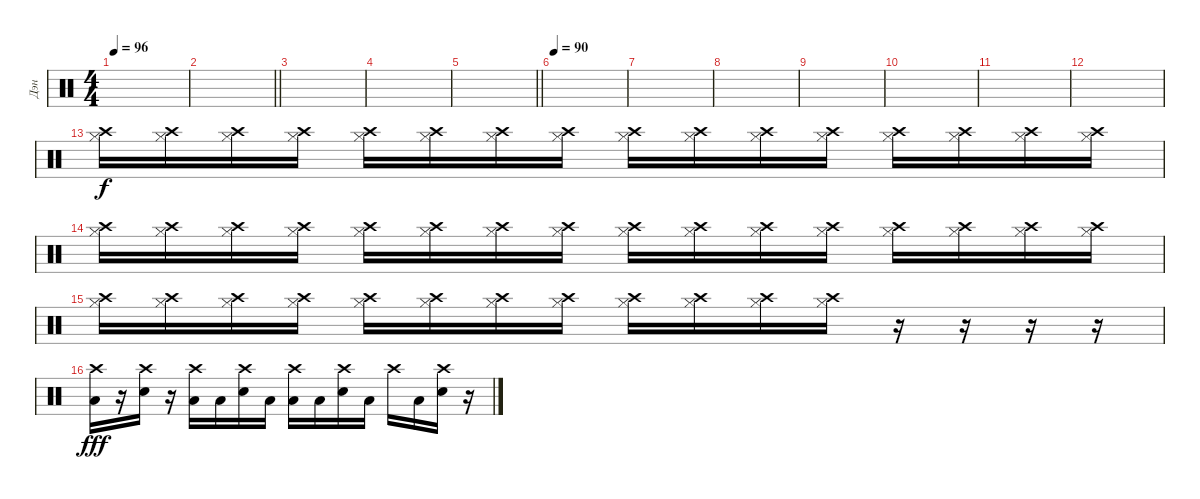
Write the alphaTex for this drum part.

\track ("Дэн" "Дэн") {instrument percussion}
\staff {score}
\articulation defaults
\ts (4 4)
\tempo 96
\clef neutral
\ks c
|
\barLineRight lightlight
|
|
|
\barLineRight lightlight
|
\tempo 90
|
|
|
|
|
|
|
("Crash high (hit)" "Hi-Hat (closed)").16{volume 16} ("Crash high (hit)" "Hi-Hat (closed)").16 ("Crash high (hit)" "Hi-Hat (closed)").16 ("Crash high (hit)" "Hi-Hat (closed)").16 ("Crash high (hit)" "Hi-Hat (closed)").16 ("Crash high (hit)" "Hi-Hat (closed)").16 ("Crash high (hit)" "Hi-Hat (closed)").16 ("Crash high (hit)" "Hi-Hat (closed)").16 ("Crash high (hit)" "Hi-Hat (closed)").16 ("Crash high (hit)" "Hi-Hat (closed)").16 ("Crash high (hit)" "Hi-Hat (closed)").16 ("Crash high (hit)" "Hi-Hat (closed)").16 ("Crash high (hit)" "Hi-Hat (closed)").16 ("Crash high (hit)" "Hi-Hat (closed)").16 ("Crash high (hit)" "Hi-Hat (closed)").16 ("Crash high (hit)" "Hi-Hat (closed)").16 |
("Crash high (hit)" "Hi-Hat (closed)").16 ("Crash high (hit)" "Hi-Hat (closed)").16 ("Crash high (hit)" "Hi-Hat (closed)").16 ("Crash high (hit)" "Hi-Hat (closed)").16 ("Crash high (hit)" "Hi-Hat (closed)").16 ("Crash high (hit)" "Hi-Hat (closed)").16 ("Crash high (hit)" "Hi-Hat (closed)").16 ("Crash high (hit)" "Hi-Hat (closed)").16 ("Crash high (hit)" "Hi-Hat (closed)").16 ("Crash high (hit)" "Hi-Hat (closed)").16 ("Crash high (hit)" "Hi-Hat (closed)").16 ("Crash high (hit)" "Hi-Hat (closed)").16 ("Crash high (hit)" "Hi-Hat (closed)").16 ("Crash high (hit)" "Hi-Hat (closed)").16 ("Crash high (hit)" "Hi-Hat (closed)").16 ("Crash high (hit)" "Hi-Hat (closed)").16 |
("Crash high (hit)" "Hi-Hat (closed)").16 ("Crash high (hit)" "Hi-Hat (closed)").16 ("Crash high (hit)" "Hi-Hat (closed)").16 ("Crash high (hit)" "Hi-Hat (closed)").16 ("Crash high (hit)" "Hi-Hat (closed)").16 ("Crash high (hit)" "Hi-Hat (closed)").16 ("Crash high (hit)" "Hi-Hat (closed)").16 ("Crash high (hit)" "Hi-Hat (closed)").16 ("Crash high (hit)" "Hi-Hat (closed)").16 ("Crash high (hit)" "Hi-Hat (closed)").16 ("Crash high (hit)" "Hi-Hat (closed)").16 ("Crash high (hit)" "Hi-Hat (closed)").16 r.16 r.16 r.16 r.16 |
("Low Floor Tom (hit)" "Crash high (hit)").16{dy fff} r.16 ("Crash high (hit)" "Electric Snare (hit)").16 r.16 ("Low Floor Tom (hit)" "Crash high (hit)").16 "Low Floor Tom (hit)".16 ("Crash high (hit)" "Electric Snare (hit)").16 "Low Floor Tom (hit)".16 ("Crash high (hit)" "Low Floor Tom (hit)").16 "Low Floor Tom (hit)".16 ("Crash high (hit)" "Electric Snare (hit)").16 "Low Floor Tom (hit)".16 "Crash high (hit)".16 "Low Floor Tom (hit)".16 ("Crash high (hit)" "Electric Snare (hit)").16 r.16
